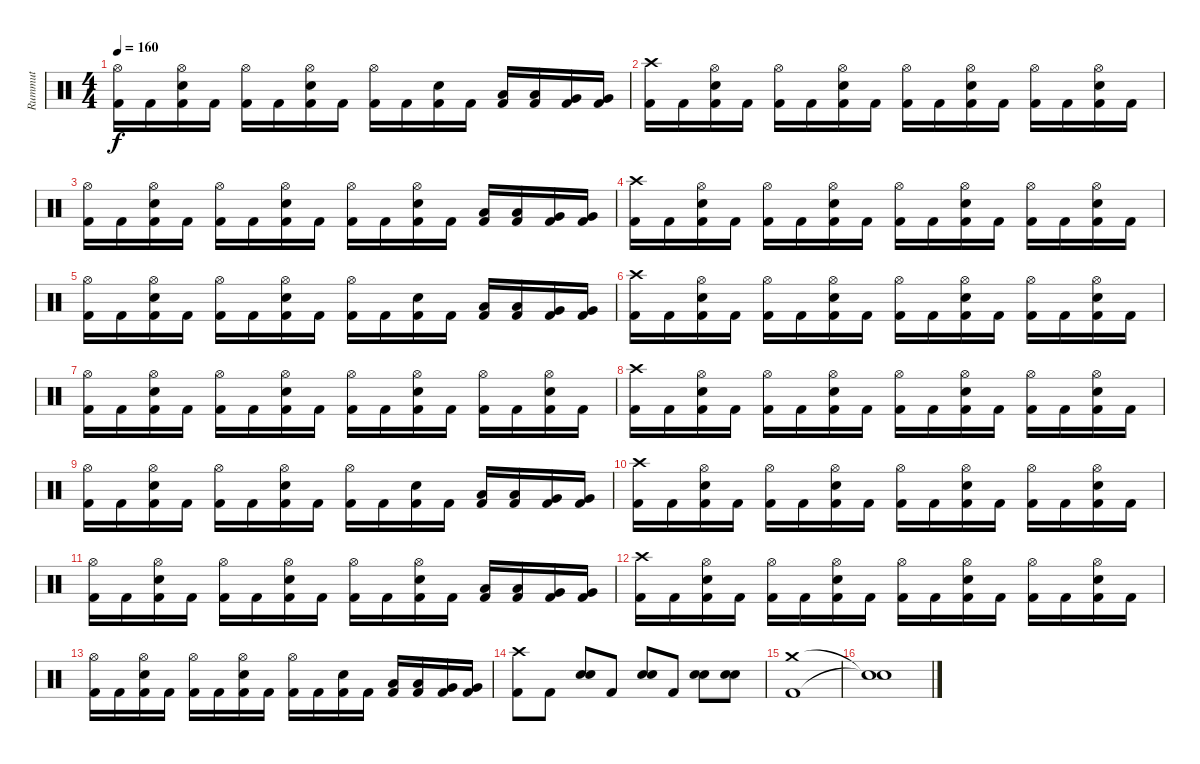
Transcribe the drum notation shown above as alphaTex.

\track ("Rummut" "Rummut") {instrument percussion}
\staff {score}
\articulation defaults
\ts (4 4)
\tempo 160
\clef neutral
\ks c
("Hi-Hat (open)" "Kick (hit) 2").16{dy f} "Kick (hit) 2".16 ("Hi-Hat (open)" "Snare (hit) 2" "Kick (hit) 2").16 "Kick (hit) 2".16 ("Hi-Hat (open)" "Kick (hit) 2").16 "Kick (hit) 2".16 ("Hi-Hat (open)" "Snare (hit) 2" "Kick (hit) 2").16 "Kick (hit) 2".16 ("Hi-Hat (open)" "Kick (hit) 2").16 "Kick (hit) 2".16 ("Snare (hit) 2" "Kick (hit) 2").16 "Kick (hit) 2".16 ("Low Tom (hit)" "Kick (hit) 2").16 ("Low Tom (hit)" "Kick (hit) 2").16 ("Very Low Tom (hit)" "Kick (hit) 2").16 ("Very Low Tom (hit)" "Kick (hit) 2").16 |
("Crash high (hit)" "Kick (hit) 2").16 "Kick (hit) 2".16 ("Hi-Hat (open)" "Snare (hit) 2" "Kick (hit) 2").16 "Kick (hit) 2".16 ("Hi-Hat (open)" "Kick (hit) 2").16 "Kick (hit) 2".16 ("Hi-Hat (open)" "Snare (hit) 2" "Kick (hit) 2").16 "Kick (hit) 2".16 ("Hi-Hat (open)" "Kick (hit) 2").16 "Kick (hit) 2".16 ("Hi-Hat (open)" "Snare (hit) 2" "Kick (hit) 2").16 "Kick (hit) 2".16 ("Hi-Hat (open)" "Kick (hit) 2").16 "Kick (hit) 2".16 ("Hi-Hat (open)" "Snare (hit) 2" "Kick (hit) 2").16 "Kick (hit) 2".16 |
("Hi-Hat (open)" "Kick (hit) 2").16 "Kick (hit) 2".16 ("Hi-Hat (open)" "Snare (hit) 2" "Kick (hit) 2").16 "Kick (hit) 2".16 ("Hi-Hat (open)" "Kick (hit) 2").16 "Kick (hit) 2".16 ("Hi-Hat (open)" "Snare (hit) 2" "Kick (hit) 2").16 "Kick (hit) 2".16 ("Hi-Hat (open)" "Kick (hit) 2").16 "Kick (hit) 2".16 ("Hi-Hat (open)" "Snare (hit) 2" "Kick (hit) 2").16 "Kick (hit) 2".16 ("Low Tom (hit)" "Kick (hit) 2").16 ("Low Tom (hit)" "Kick (hit) 2").16 ("Very Low Tom (hit)" "Kick (hit) 2").16 ("Very Low Tom (hit)" "Kick (hit) 2").16 |
("Crash high (hit)" "Kick (hit) 2").16 "Kick (hit) 2".16 ("Hi-Hat (open)" "Snare (hit) 2" "Kick (hit) 2").16 "Kick (hit) 2".16 ("Hi-Hat (open)" "Kick (hit) 2").16 "Kick (hit) 2".16 ("Hi-Hat (open)" "Snare (hit) 2" "Kick (hit) 2").16 "Kick (hit) 2".16 ("Hi-Hat (open)" "Kick (hit) 2").16 "Kick (hit) 2".16 ("Hi-Hat (open)" "Snare (hit) 2" "Kick (hit) 2").16 "Kick (hit) 2".16 ("Hi-Hat (open)" "Kick (hit) 2").16 "Kick (hit) 2".16 ("Hi-Hat (open)" "Snare (hit) 2" "Kick (hit) 2").16 "Kick (hit) 2".16 |
("Hi-Hat (open)" "Kick (hit) 2").16 "Kick (hit) 2".16 ("Hi-Hat (open)" "Snare (hit) 2" "Kick (hit) 2").16 "Kick (hit) 2".16 ("Hi-Hat (open)" "Kick (hit) 2").16 "Kick (hit) 2".16 ("Hi-Hat (open)" "Snare (hit) 2" "Kick (hit) 2").16 "Kick (hit) 2".16 ("Hi-Hat (open)" "Kick (hit) 2").16 "Kick (hit) 2".16 ("Snare (hit) 2" "Kick (hit) 2").16 "Kick (hit) 2".16 ("Low Tom (hit)" "Kick (hit) 2").16 ("Low Tom (hit)" "Kick (hit) 2").16 ("Very Low Tom (hit)" "Kick (hit) 2").16 ("Very Low Tom (hit)" "Kick (hit) 2").16 |
("Crash high (hit)" "Kick (hit) 2").16 "Kick (hit) 2".16 ("Hi-Hat (open)" "Snare (hit) 2" "Kick (hit) 2").16 "Kick (hit) 2".16 ("Hi-Hat (open)" "Kick (hit) 2").16 "Kick (hit) 2".16 ("Hi-Hat (open)" "Snare (hit) 2" "Kick (hit) 2").16 "Kick (hit) 2".16 ("Hi-Hat (open)" "Kick (hit) 2").16 "Kick (hit) 2".16 ("Hi-Hat (open)" "Snare (hit) 2" "Kick (hit) 2").16 "Kick (hit) 2".16 ("Hi-Hat (open)" "Kick (hit) 2").16 "Kick (hit) 2".16 ("Hi-Hat (open)" "Snare (hit) 2" "Kick (hit) 2").16 "Kick (hit) 2".16 |
("Hi-Hat (open)" "Kick (hit) 2").16 "Kick (hit) 2".16 ("Hi-Hat (open)" "Snare (hit) 2" "Kick (hit) 2").16 "Kick (hit) 2".16 ("Hi-Hat (open)" "Kick (hit) 2").16 "Kick (hit) 2".16 ("Hi-Hat (open)" "Snare (hit) 2" "Kick (hit) 2").16 "Kick (hit) 2".16 ("Hi-Hat (open)" "Kick (hit) 2").16 "Kick (hit) 2".16 ("Hi-Hat (open)" "Snare (hit) 2" "Kick (hit) 2").16 "Kick (hit) 2".16 ("Hi-Hat (open)" "Kick (hit) 2").16 "Kick (hit) 2".16 ("Hi-Hat (open)" "Snare (hit) 2" "Kick (hit) 2").16 "Kick (hit) 2".16 |
("Crash high (hit)" "Kick (hit) 2").16 "Kick (hit) 2".16 ("Hi-Hat (open)" "Snare (hit) 2" "Kick (hit) 2").16 "Kick (hit) 2".16 ("Hi-Hat (open)" "Kick (hit) 2").16 "Kick (hit) 2".16 ("Hi-Hat (open)" "Snare (hit) 2" "Kick (hit) 2").16 "Kick (hit) 2".16 ("Hi-Hat (open)" "Kick (hit) 2").16 "Kick (hit) 2".16 ("Hi-Hat (open)" "Snare (hit) 2" "Kick (hit) 2").16 "Kick (hit) 2".16 ("Hi-Hat (open)" "Kick (hit) 2").16 "Kick (hit) 2".16 ("Hi-Hat (open)" "Snare (hit) 2" "Kick (hit) 2").16 "Kick (hit) 2".16 |
("Hi-Hat (open)" "Kick (hit) 2").16 "Kick (hit) 2".16 ("Hi-Hat (open)" "Snare (hit) 2" "Kick (hit) 2").16 "Kick (hit) 2".16 ("Hi-Hat (open)" "Kick (hit) 2").16 "Kick (hit) 2".16 ("Hi-Hat (open)" "Snare (hit) 2" "Kick (hit) 2").16 "Kick (hit) 2".16 ("Hi-Hat (open)" "Kick (hit) 2").16 "Kick (hit) 2".16 ("Snare (hit) 2" "Kick (hit) 2").16 "Kick (hit) 2".16 ("Low Tom (hit)" "Kick (hit) 2").16 ("Low Tom (hit)" "Kick (hit) 2").16 ("Very Low Tom (hit)" "Kick (hit) 2").16 ("Very Low Tom (hit)" "Kick (hit) 2").16 |
("Crash high (hit)" "Kick (hit) 2").16 "Kick (hit) 2".16 ("Hi-Hat (open)" "Snare (hit) 2" "Kick (hit) 2").16 "Kick (hit) 2".16 ("Hi-Hat (open)" "Kick (hit) 2").16 "Kick (hit) 2".16 ("Hi-Hat (open)" "Snare (hit) 2" "Kick (hit) 2").16 "Kick (hit) 2".16 ("Hi-Hat (open)" "Kick (hit) 2").16 "Kick (hit) 2".16 ("Hi-Hat (open)" "Snare (hit) 2" "Kick (hit) 2").16 "Kick (hit) 2".16 ("Hi-Hat (open)" "Kick (hit) 2").16 "Kick (hit) 2".16 ("Hi-Hat (open)" "Snare (hit) 2" "Kick (hit) 2").16 "Kick (hit) 2".16 |
("Hi-Hat (open)" "Kick (hit) 2").16 "Kick (hit) 2".16 ("Hi-Hat (open)" "Snare (hit) 2" "Kick (hit) 2").16 "Kick (hit) 2".16 ("Hi-Hat (open)" "Kick (hit) 2").16 "Kick (hit) 2".16 ("Hi-Hat (open)" "Snare (hit) 2" "Kick (hit) 2").16 "Kick (hit) 2".16 ("Hi-Hat (open)" "Kick (hit) 2").16 "Kick (hit) 2".16 ("Hi-Hat (open)" "Snare (hit) 2" "Kick (hit) 2").16 "Kick (hit) 2".16 ("Low Tom (hit)" "Kick (hit) 2").16 ("Low Tom (hit)" "Kick (hit) 2").16 ("Very Low Tom (hit)" "Kick (hit) 2").16 ("Very Low Tom (hit)" "Kick (hit) 2").16 |
("Crash high (hit)" "Kick (hit) 2").16 "Kick (hit) 2".16 ("Hi-Hat (open)" "Snare (hit) 2" "Kick (hit) 2").16 "Kick (hit) 2".16 ("Hi-Hat (open)" "Kick (hit) 2").16 "Kick (hit) 2".16 ("Hi-Hat (open)" "Snare (hit) 2" "Kick (hit) 2").16 "Kick (hit) 2".16 ("Hi-Hat (open)" "Kick (hit) 2").16 "Kick (hit) 2".16 ("Hi-Hat (open)" "Snare (hit) 2" "Kick (hit) 2").16 "Kick (hit) 2".16 ("Hi-Hat (open)" "Kick (hit) 2").16 "Kick (hit) 2".16 ("Hi-Hat (open)" "Snare (hit) 2" "Kick (hit) 2").16 "Kick (hit) 2".16 |
("Hi-Hat (open)" "Kick (hit) 2").16 "Kick (hit) 2".16 ("Hi-Hat (open)" "Snare (hit) 2" "Kick (hit) 2").16 "Kick (hit) 2".16 ("Hi-Hat (open)" "Kick (hit) 2").16 "Kick (hit) 2".16 ("Hi-Hat (open)" "Snare (hit) 2" "Kick (hit) 2").16 "Kick (hit) 2".16 ("Hi-Hat (open)" "Kick (hit) 2").16 "Kick (hit) 2".16 ("Snare (hit) 2" "Kick (hit) 2").16 "Kick (hit) 2".16 ("Low Tom (hit)" "Kick (hit) 2").16 ("Low Tom (hit)" "Kick (hit) 2").16 ("Very Low Tom (hit)" "Kick (hit) 2").16 ("Very Low Tom (hit)" "Kick (hit) 2").16 |
("Kick (hit) 2" "Crash high (hit)").8 "Kick (hit) 2".8 ("Snare (hit) 2" "Electric Snare (hit)").8 "Kick (hit) 2".8 ("Snare (hit) 2" "Electric Snare (hit)").8 "Kick (hit) 2".8 ("Snare (hit) 2" "Electric Snare (hit)").8 ("Snare (hit) 2" "Electric Snare (hit)").8 |
("Crash medium (hit)" "Kick (hit) 2").1 |
("Snare (hit)"{t} "Snare (hit)"{t}).1
